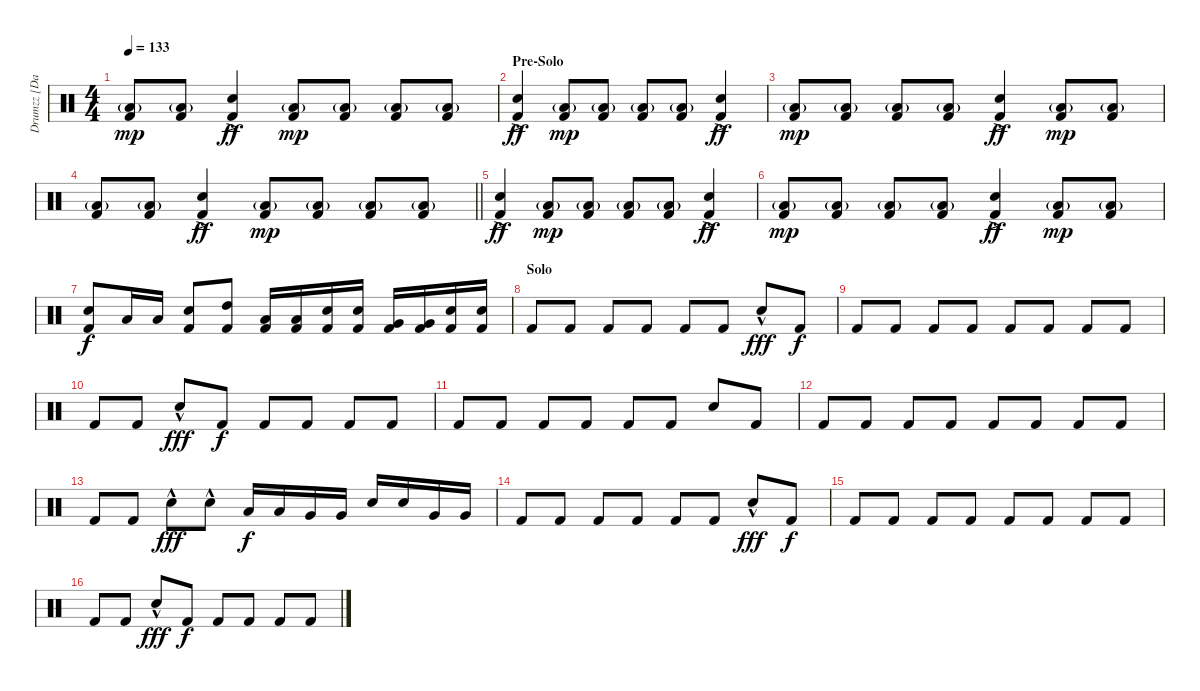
\track ("Drumzz [Dave Grohl]" "Drumzz [Da") {instrument percussion}
\staff {score}
\articulation defaults
\ts (4 4)
\tempo 133
\clef neutral
\ks c
("Low Floor Tom (hit)"{g} "Kick (hit) 2").8{dy mp} ("Low Floor Tom (hit)"{g} "Kick (hit) 2").8 ("Snare (hit) 2"{ac} "Kick (hit) 2").4{dy ff} ("Low Floor Tom (hit)"{g} "Kick (hit) 2").8{dy mp} ("Low Floor Tom (hit)"{g} "Kick (hit) 2").8 ("Low Floor Tom (hit)"{g} "Kick (hit) 2").8 ("Low Floor Tom (hit)"{g} "Kick (hit) 2").8 |
\section ("" "Pre-Solo")
("Snare (hit) 2"{ac} "Kick (hit) 2").4{dy ff} ("Low Floor Tom (hit)"{g} "Kick (hit) 2").8{dy mp} ("Low Floor Tom (hit)"{g} "Kick (hit) 2").8 ("Low Floor Tom (hit)"{g} "Kick (hit) 2").8 ("Low Floor Tom (hit)"{g} "Kick (hit) 2").8 ("Snare (hit) 2"{ac} "Kick (hit) 2").4{dy ff} |
("Low Floor Tom (hit)"{g} "Kick (hit) 2").8{dy mp} ("Low Floor Tom (hit)"{g} "Kick (hit) 2").8 ("Low Floor Tom (hit)"{g} "Kick (hit) 2").8 ("Low Floor Tom (hit)"{g} "Kick (hit) 2").8 ("Snare (hit) 2"{ac} "Kick (hit) 2").4{dy ff} ("Low Floor Tom (hit)"{g} "Kick (hit) 2").8{dy mp} ("Low Floor Tom (hit)"{g} "Kick (hit) 2").8 |
\barLineRight lightlight
("Low Floor Tom (hit)"{g} "Kick (hit) 2").8 ("Low Floor Tom (hit)"{g} "Kick (hit) 2").8 ("Snare (hit) 2"{ac} "Kick (hit) 2").4{dy ff} ("Low Floor Tom (hit)"{g} "Kick (hit) 2").8{dy mp} ("Low Floor Tom (hit)"{g} "Kick (hit) 2").8 ("Low Floor Tom (hit)"{g} "Kick (hit) 2").8 ("Low Floor Tom (hit)"{g} "Kick (hit) 2").8 |
("Snare (hit) 2"{ac} "Kick (hit) 2").4{dy ff} ("Low Floor Tom (hit)"{g} "Kick (hit) 2").8{dy mp} ("Low Floor Tom (hit)"{g} "Kick (hit) 2").8 ("Low Floor Tom (hit)"{g} "Kick (hit) 2").8 ("Low Floor Tom (hit)"{g} "Kick (hit) 2").8 ("Snare (hit) 2"{ac} "Kick (hit) 2").4{dy ff} |
("Low Floor Tom (hit)"{g} "Kick (hit) 2").8{dy mp} ("Low Floor Tom (hit)"{g} "Kick (hit) 2").8 ("Low Floor Tom (hit)"{g} "Kick (hit) 2").8 ("Low Floor Tom (hit)"{g} "Kick (hit) 2").8 ("Snare (hit) 2"{ac} "Kick (hit) 2").4{dy ff} ("Low Floor Tom (hit)"{g} "Kick (hit) 2").8{dy mp} ("Low Floor Tom (hit)"{g} "Kick (hit) 2").8 |
("Snare (hit) 2" "Kick (hit) 2").8{dy f} "Low Tom (hit)".16 "Low Tom (hit)".16 ("Snare (hit) 2" "Kick (hit) 2").8 ("High Tom (hit)" "Kick (hit) 2").8 ("Low Tom (hit)" "Kick (hit) 2").16 ("Low Tom (hit)" "Kick (hit) 2").16 ("Snare (hit) 2" "Kick (hit) 2").16 ("Snare (hit) 2" "Kick (hit) 2").16 ("Very Low Tom (hit)" "Kick (hit) 2").16 ("Very Low Tom (hit)" "Kick (hit) 2").16 ("Electric Snare (hit)" "Kick (hit) 2").16 ("Electric Snare (hit)" "Kick (hit) 2").16 |
\section ("" "Solo")
"Kick (hit) 2".8 "Kick (hit) 2".8 "Kick (hit) 2".8 "Kick (hit) 2".8 "Kick (hit) 2".8 "Kick (hit) 2".8 "Snare (hit) 2"{hac}.8{dy fff} "Kick (hit) 2".8{dy f} |
"Kick (hit) 2".8 "Kick (hit) 2".8 "Kick (hit) 2".8 "Kick (hit) 2".8 "Kick (hit) 2".8 "Kick (hit) 2".8 "Kick (hit) 2".8 "Kick (hit) 2".8 |
"Kick (hit) 2".8 "Kick (hit) 2".8 "Snare (hit) 2"{hac}.8{dy fff} "Kick (hit) 2".8{dy f} "Kick (hit) 2".8 "Kick (hit) 2".8 "Kick (hit) 2".8 "Kick (hit) 2".8 |
"Kick (hit) 2".8 "Kick (hit) 2".8 "Kick (hit) 2".8 "Kick (hit) 2".8 "Kick (hit) 2".8 "Kick (hit) 2".8 "Snare (hit) 2".8 "Kick (hit) 2".8 |
"Kick (hit) 2".8 "Kick (hit) 2".8 "Kick (hit) 2".8 "Kick (hit) 2".8 "Kick (hit) 2".8 "Kick (hit) 2".8 "Kick (hit) 2".8 "Kick (hit) 2".8 |
"Kick (hit) 2".8 "Kick (hit) 2".8 "Snare (hit) 2"{hac}.8{dy fff} "Snare (hit) 2"{hac}.8 "Low Tom (hit)".16{dy f} "Low Tom (hit)".16 "Very Low Tom (hit)".16 "Very Low Tom (hit)".16 "Snare (hit) 2".16 "Snare (hit) 2".16 "Very Low Tom (hit)".16 "Very Low Tom (hit)".16 |
"Kick (hit) 2".8 "Kick (hit) 2".8 "Kick (hit) 2".8 "Kick (hit) 2".8 "Kick (hit) 2".8 "Kick (hit) 2".8 "Snare (hit) 2"{hac}.8{dy fff} "Kick (hit) 2".8{dy f} |
"Kick (hit) 2".8 "Kick (hit) 2".8 "Kick (hit) 2".8 "Kick (hit) 2".8 "Kick (hit) 2".8 "Kick (hit) 2".8 "Kick (hit) 2".8 "Kick (hit) 2".8 |
"Kick (hit) 2".8 "Kick (hit) 2".8 "Snare (hit) 2"{hac}.8{dy fff} "Kick (hit) 2".8{dy f} "Kick (hit) 2".8 "Kick (hit) 2".8 "Kick (hit) 2".8 "Kick (hit) 2".8
